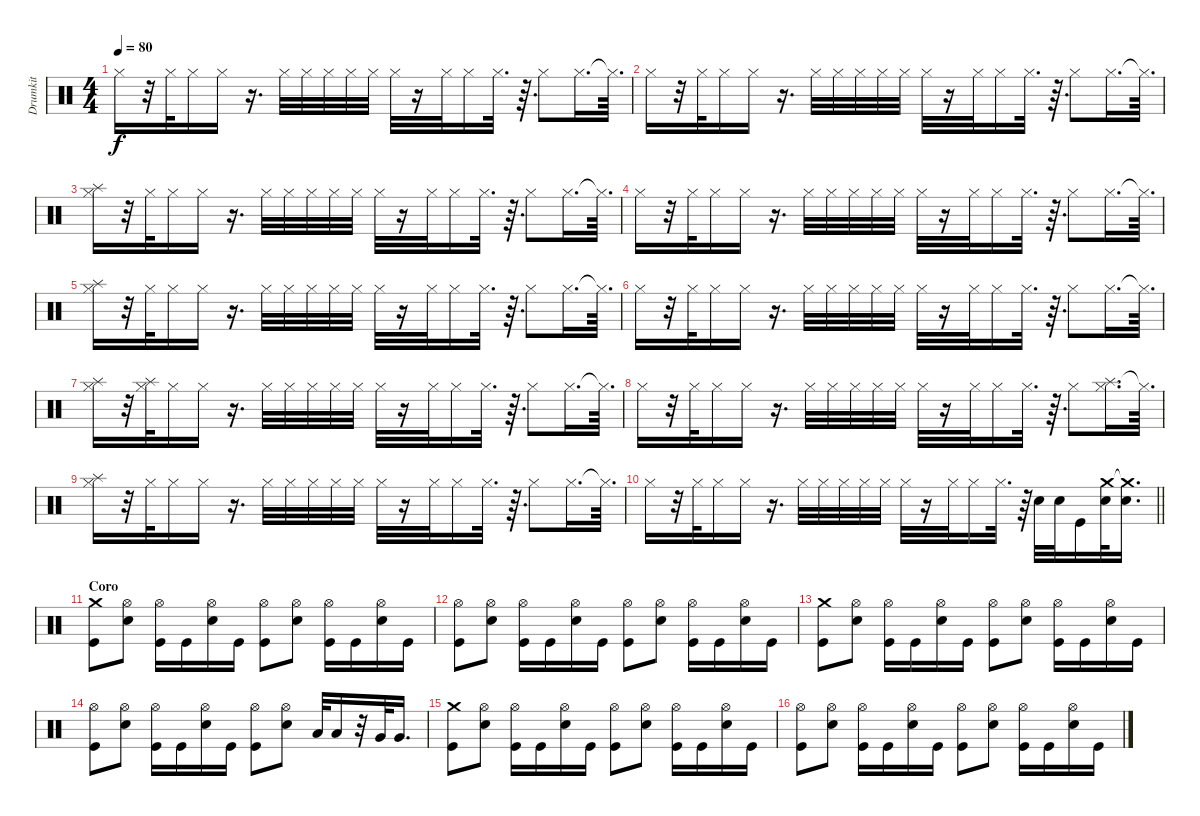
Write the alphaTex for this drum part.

\track ("Drumkit" "Drumkit") {instrument percussion}
\staff {score}
\articulation defaults
\ts (4 4)
\tempo 80
\clef neutral
\ks c "Hi-Hat (closed)".16{dy f}
r.32 "Hi-Hat (closed)".32 "Hi-Hat (closed)".16 "Hi-Hat (closed)".16 r.16{d} "Hi-Hat (closed)".32 "Hi-Hat (closed)".32 "Hi-Hat (closed)".32 "Hi-Hat (closed)".32 "Hi-Hat (closed)".32 "Hi-Hat (closed)".32 r.16 "Hi-Hat (closed)".32 "Hi-Hat (closed)".16 "Hi-Hat (closed)".32{d} r.64{d} "Hi-Hat (closed)".8 "Hi-Hat (closed)".16{d} "Hi-Hat (closed)"{t}.64{d} |
"Hi-Hat (closed)".16 r.32 "Hi-Hat (closed)".32 "Hi-Hat (closed)".16 "Hi-Hat (closed)".16 r.16{d} "Hi-Hat (closed)".32 "Hi-Hat (closed)".32 "Hi-Hat (closed)".32 "Hi-Hat (closed)".32 "Hi-Hat (closed)".32 "Hi-Hat (closed)".32 r.16 "Hi-Hat (closed)".32 "Hi-Hat (closed)".16 "Hi-Hat (closed)".32{d} r.64{d} "Hi-Hat (closed)".8 "Hi-Hat (closed)".16{d} "Hi-Hat (closed)"{t}.64{d} |
("Splash (hit)" "Hi-Hat (closed)").16 r.32 "Hi-Hat (closed)".32 "Hi-Hat (closed)".16 "Hi-Hat (closed)".16 r.16{d} "Hi-Hat (closed)".32 "Hi-Hat (closed)".32 "Hi-Hat (closed)".32 "Hi-Hat (closed)".32 "Hi-Hat (closed)".32 "Hi-Hat (closed)".32 r.16 "Hi-Hat (closed)".32 "Hi-Hat (closed)".16 "Hi-Hat (closed)".32{d} r.64{d} "Hi-Hat (closed)".8 "Hi-Hat (closed)".16{d} "Hi-Hat (closed)"{t}.64{d} |
"Hi-Hat (closed)".16 r.32 "Hi-Hat (closed)".32 "Hi-Hat (closed)".16 "Hi-Hat (closed)".16 r.16{d} "Hi-Hat (closed)".32 "Hi-Hat (closed)".32 "Hi-Hat (closed)".32 "Hi-Hat (closed)".32 "Hi-Hat (closed)".32 "Hi-Hat (closed)".32 r.16 "Hi-Hat (closed)".32 "Hi-Hat (closed)".16 "Hi-Hat (closed)".32{d} r.64{d} "Hi-Hat (closed)".8 "Hi-Hat (closed)".16{d} "Hi-Hat (closed)"{t}.64{d} |
("Splash (hit)" "Hi-Hat (closed)").16 r.32 "Hi-Hat (closed)".32 "Hi-Hat (closed)".16 "Hi-Hat (closed)".16 r.16{d} "Hi-Hat (closed)".32 "Hi-Hat (closed)".32 "Hi-Hat (closed)".32 "Hi-Hat (closed)".32 "Hi-Hat (closed)".32 "Hi-Hat (closed)".32 r.16 "Hi-Hat (closed)".32 "Hi-Hat (closed)".16 "Hi-Hat (closed)".32{d} r.64{d} "Hi-Hat (closed)".8 "Hi-Hat (closed)".16{d} "Hi-Hat (closed)"{t}.64{d} |
"Hi-Hat (closed)".16 r.32 "Hi-Hat (closed)".32 "Hi-Hat (closed)".16 "Hi-Hat (closed)".16 r.16{d} "Hi-Hat (closed)".32 "Hi-Hat (closed)".32 "Hi-Hat (closed)".32 "Hi-Hat (closed)".32 "Hi-Hat (closed)".32 "Hi-Hat (closed)".32 r.16 "Hi-Hat (closed)".32 "Hi-Hat (closed)".16 "Hi-Hat (closed)".32{d} r.64{d} "Hi-Hat (closed)".8 "Hi-Hat (closed)".16{d} "Hi-Hat (closed)"{t}.64{d} |
("Splash (hit)" "Hi-Hat (closed)").16 r.32 ("Splash (hit)" "Hi-Hat (closed)").32 "Hi-Hat (closed)".16 "Hi-Hat (closed)".16 r.16{d} "Hi-Hat (closed)".32 "Hi-Hat (closed)".32 "Hi-Hat (closed)".32 "Hi-Hat (closed)".32 "Hi-Hat (closed)".32 "Hi-Hat (closed)".32 r.16 "Hi-Hat (closed)".32 "Hi-Hat (closed)".16 "Hi-Hat (closed)".32{d} r.64{d} "Hi-Hat (closed)".8 "Hi-Hat (closed)".16{d} "Hi-Hat (closed)"{t}.64{d} |
"Hi-Hat (closed)".16 r.32 "Hi-Hat (closed)".32 "Hi-Hat (closed)".16 "Hi-Hat (closed)".16 r.16{d} "Hi-Hat (closed)".32 "Hi-Hat (closed)".32 "Hi-Hat (closed)".32 "Hi-Hat (closed)".32 "Hi-Hat (closed)".32 "Hi-Hat (closed)".32 r.16 "Hi-Hat (closed)".32 "Hi-Hat (closed)".16 "Hi-Hat (closed)".32{d} r.64{d} "Hi-Hat (closed)".8 ("Splash (hit)" "Hi-Hat (closed)").16{d} "Hi-Hat (closed)"{t}.64{d} |
("Splash (hit)" "Hi-Hat (closed)").16 r.32 "Hi-Hat (closed)".32 "Hi-Hat (closed)".16 "Hi-Hat (closed)".16 r.16{d} "Hi-Hat (closed)".32 "Hi-Hat (closed)".32 "Hi-Hat (closed)".32 "Hi-Hat (closed)".32 "Hi-Hat (closed)".32 "Hi-Hat (closed)".32 r.16 "Hi-Hat (closed)".32 "Hi-Hat (closed)".16 "Hi-Hat (closed)".32{d} r.64{d} "Hi-Hat (closed)".8 "Hi-Hat (closed)".16{d} "Hi-Hat (closed)"{t}.64{d} |
\barLineRight lightlight "Hi-Hat (closed)".16
r.32 "Hi-Hat (closed)".32 "Hi-Hat (closed)".16 "Hi-Hat (closed)".16 r.16{d} "Hi-Hat (closed)".32 "Hi-Hat (closed)".32 "Hi-Hat (closed)".32 "Hi-Hat (closed)".32 "Hi-Hat (closed)".32 "Hi-Hat (closed)".32 r.16 "Hi-Hat (closed)".32 "Hi-Hat (closed)".16 "Hi-Hat (closed)".32{d} r.64 "Snare (hit) 2".32 "Snare (hit) 2".32 "Kick (hit)".16 ("Crash medium (hit)" "Snare (hit) 2").32 ("Crash medium (hit)"{t} "Snare (hit) 2").16{d} |
\section ("" "Coro")
("Crash medium (hit)" "Kick (hit)").8 ("Hi-Hat (open)" "Snare (hit) 2").8 ("Hi-Hat (open)" "Kick (hit)").16 "Kick (hit)".16 ("Hi-Hat (open)" "Snare (hit) 2").16 "Kick (hit)".16 ("Hi-Hat (open)" "Kick (hit)").8 ("Hi-Hat (open)" "Snare (hit) 2").8 ("Hi-Hat (open)" "Kick (hit)").16 "Kick (hit)".16 ("Hi-Hat (open)" "Snare (hit) 2").16 "Kick (hit)".16 |
("Hi-Hat (open)" "Kick (hit)").8 ("Hi-Hat (open)" "Snare (hit) 2").8 ("Hi-Hat (open)" "Kick (hit)").16 "Kick (hit)".16 ("Hi-Hat (open)" "Snare (hit) 2").16 "Kick (hit)".16 ("Hi-Hat (open)" "Kick (hit)").8 ("Hi-Hat (open)" "Snare (hit) 2").8 ("Hi-Hat (open)" "Kick (hit)").16 "Kick (hit)".16 ("Hi-Hat (open)" "Snare (hit) 2").16 "Kick (hit)".16 |
("Crash medium (hit)" "Kick (hit)").8 ("Hi-Hat (open)" "Snare (hit) 2").8 ("Hi-Hat (open)" "Kick (hit)").16 "Kick (hit)".16 ("Hi-Hat (open)" "Snare (hit) 2").16 "Kick (hit)".16 ("Hi-Hat (open)" "Kick (hit)").8 ("Hi-Hat (open)" "Snare (hit) 2").8 ("Hi-Hat (open)" "Kick (hit)").16 "Kick (hit)".16 ("Hi-Hat (open)" "Snare (hit) 2").16 "Kick (hit)".16 |
("Hi-Hat (open)" "Kick (hit)").8 ("Hi-Hat (open)" "Snare (hit) 2").8 ("Hi-Hat (open)" "Kick (hit)").16 "Kick (hit)".16 ("Hi-Hat (open)" "Snare (hit) 2").16 "Kick (hit)".16 ("Hi-Hat (open)" "Kick (hit)").8 ("Hi-Hat (open)" "Snare (hit) 2").8 "Low Tom (hit)".32 "Low Tom (hit)".16 r.32 "Very Low Tom (hit)".32 "Very Low Tom (hit)".16{d} |
("Crash medium (hit)" "Kick (hit)").8 ("Hi-Hat (open)" "Snare (hit) 2").8 ("Hi-Hat (open)" "Kick (hit)").16 "Kick (hit)".16 ("Hi-Hat (open)" "Snare (hit) 2").16 "Kick (hit)".16 ("Hi-Hat (open)" "Kick (hit)").8 ("Hi-Hat (open)" "Snare (hit) 2").8 ("Hi-Hat (open)" "Kick (hit)").16 "Kick (hit)".16 ("Hi-Hat (open)" "Snare (hit) 2").16 "Kick (hit)".16 |
("Hi-Hat (open)" "Kick (hit)").8 ("Hi-Hat (open)" "Snare (hit) 2").8 ("Hi-Hat (open)" "Kick (hit)").16 "Kick (hit)".16 ("Hi-Hat (open)" "Snare (hit) 2").16 "Kick (hit)".16 ("Hi-Hat (open)" "Kick (hit)").8 ("Hi-Hat (open)" "Snare (hit) 2").8 ("Hi-Hat (open)" "Kick (hit)").16 "Kick (hit)".16 ("Hi-Hat (open)" "Snare (hit) 2").16 "Kick (hit)".16
